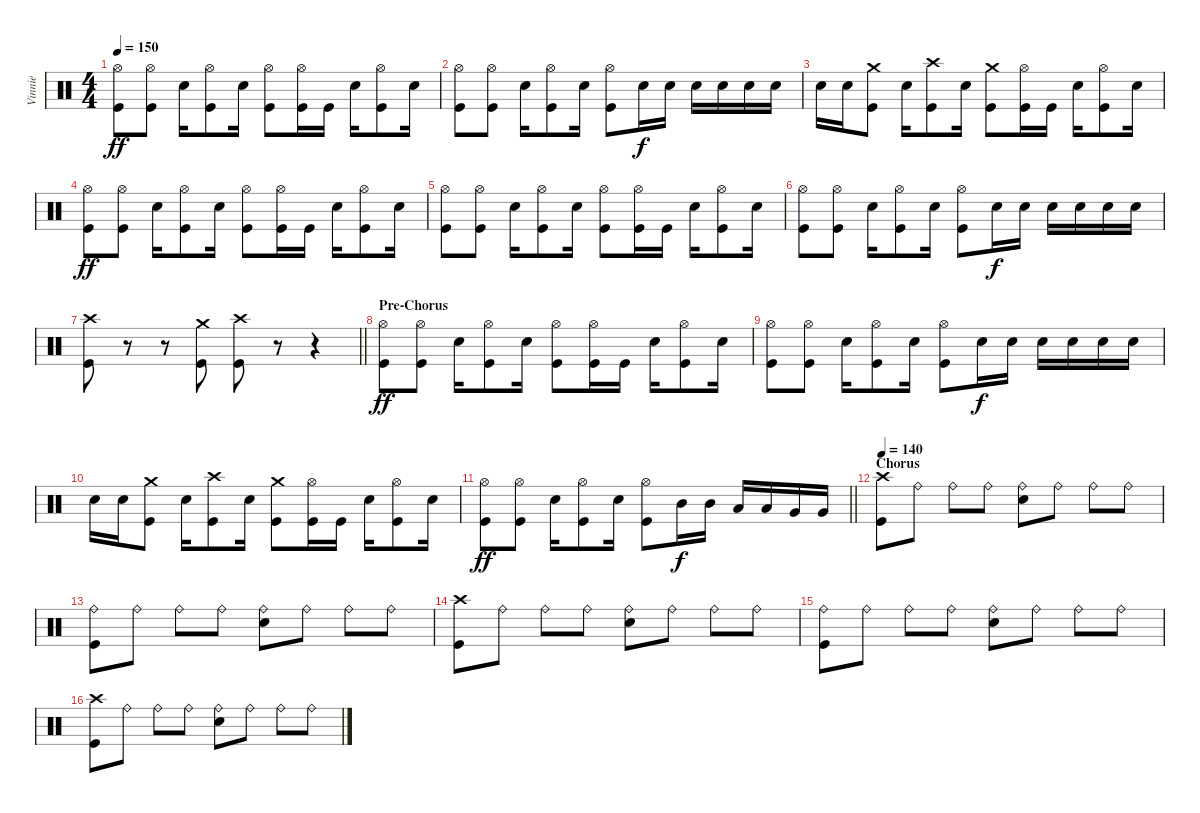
\track ("Vinnie" "Vinnie") {instrument percussion}
\staff {score}
\articulation defaults
\ts (4 4)
\tempo 150
\clef neutral
\ks c
("Hi-Hat (open)" "Kick (hit)").8{dy ff} ("Hi-Hat (open)" "Kick (hit)").8 "Electric Snare (hit)".16 ("Hi-Hat (open)" "Kick (hit)").8 "Electric Snare (hit)".16 ("Hi-Hat (open)" "Kick (hit)").8 ("Hi-Hat (open)" "Kick (hit)").16 "Kick (hit)".16 "Electric Snare (hit)".16 ("Hi-Hat (open)" "Kick (hit)").8 "Electric Snare (hit)".16 |
("Hi-Hat (open)" "Kick (hit)").8 ("Hi-Hat (open)" "Kick (hit)").8 "Electric Snare (hit)".16 ("Hi-Hat (open)" "Kick (hit)").8 "Electric Snare (hit)".16 ("Hi-Hat (open)" "Kick (hit)").8 "Electric Snare (hit)".16{dy f} "Electric Snare (hit)".16 "Electric Snare (hit)".16 "Electric Snare (hit)".16 "Electric Snare (hit)".16 "Electric Snare (hit)".16 |
"Electric Snare (hit)".16 "Electric Snare (hit)".16 ("Crash medium (hit)" "Kick (hit)").8 "Electric Snare (hit)".16 ("Crash high (hit)" "Kick (hit)").8 "Electric Snare (hit)".16 ("Crash medium (hit)" "Kick (hit)").8 ("Hi-Hat (open)" "Kick (hit)").16 "Kick (hit)".16 "Electric Snare (hit)".16 ("Hi-Hat (open)" "Kick (hit)").8 "Electric Snare (hit)".16 |
("Hi-Hat (open)" "Kick (hit)").8{dy ff} ("Hi-Hat (open)" "Kick (hit)").8 "Electric Snare (hit)".16 ("Hi-Hat (open)" "Kick (hit)").8 "Electric Snare (hit)".16 ("Hi-Hat (open)" "Kick (hit)").8 ("Hi-Hat (open)" "Kick (hit)").16 "Kick (hit)".16 "Electric Snare (hit)".16 ("Hi-Hat (open)" "Kick (hit)").8 "Electric Snare (hit)".16 |
("Hi-Hat (open)" "Kick (hit)").8 ("Hi-Hat (open)" "Kick (hit)").8 "Electric Snare (hit)".16 ("Hi-Hat (open)" "Kick (hit)").8 "Electric Snare (hit)".16 ("Hi-Hat (open)" "Kick (hit)").8 ("Hi-Hat (open)" "Kick (hit)").16 "Kick (hit)".16 "Electric Snare (hit)".16 ("Hi-Hat (open)" "Kick (hit)").8 "Electric Snare (hit)".16 |
("Hi-Hat (open)" "Kick (hit)").8 ("Hi-Hat (open)" "Kick (hit)").8 "Electric Snare (hit)".16 ("Hi-Hat (open)" "Kick (hit)").8 "Electric Snare (hit)".16 ("Hi-Hat (open)" "Kick (hit)").8 "Electric Snare (hit)".16{dy f} "Electric Snare (hit)".16 "Electric Snare (hit)".16 "Electric Snare (hit)".16 "Electric Snare (hit)".16 "Electric Snare (hit)".16 |
\barLineRight lightlight
("Crash high (hit)" "Kick (hit)").8 r.8{volume 0} r.8 ("Crash medium (hit)" "Kick (hit)").8{volume 16} ("Crash high (hit)" "Kick (hit)").8 r.8{volume 0} r.4 |
\section ("" "Pre-Chorus")
("Hi-Hat (open)" "Kick (hit)").8{dy ff volume 16} ("Hi-Hat (open)" "Kick (hit)").8 "Electric Snare (hit)".16 ("Hi-Hat (open)" "Kick (hit)").8 "Electric Snare (hit)".16 ("Hi-Hat (open)" "Kick (hit)").8 ("Hi-Hat (open)" "Kick (hit)").16 "Kick (hit)".16 "Electric Snare (hit)".16 ("Hi-Hat (open)" "Kick (hit)").8 "Electric Snare (hit)".16 |
("Hi-Hat (open)" "Kick (hit)").8 ("Hi-Hat (open)" "Kick (hit)").8 "Electric Snare (hit)".16 ("Hi-Hat (open)" "Kick (hit)").8 "Electric Snare (hit)".16 ("Hi-Hat (open)" "Kick (hit)").8 "Electric Snare (hit)".16{dy f} "Electric Snare (hit)".16 "Electric Snare (hit)".16 "Electric Snare (hit)".16 "Electric Snare (hit)".16 "Electric Snare (hit)".16 |
"Electric Snare (hit)".16 "Electric Snare (hit)".16 ("Crash medium (hit)" "Kick (hit)").8 "Electric Snare (hit)".16 ("Crash high (hit)" "Kick (hit)").8 "Electric Snare (hit)".16 ("Crash medium (hit)" "Kick (hit)").8 ("Hi-Hat (open)" "Kick (hit)").16 "Kick (hit)".16 "Electric Snare (hit)".16 ("Hi-Hat (open)" "Kick (hit)").8 "Electric Snare (hit)".16 |
\barLineRight lightlight
("Hi-Hat (open)" "Kick (hit)").8{dy ff} ("Hi-Hat (open)" "Kick (hit)").8 "Electric Snare (hit)".16 ("Hi-Hat (open)" "Kick (hit)").8 "Electric Snare (hit)".16 ("Hi-Hat (open)" "Kick (hit)").8 "Mid Tom (hit)".16{dy f} "Mid Tom (hit)".16 "Low Tom (hit)".16 "Low Tom (hit)".16 "Very Low Tom (hit)".16 "Very Low Tom (hit)".16 |
\section ("" "Chorus")
\tempo 140
("Crash high (hit)" "Kick (hit)").8 "Ride (bell)".8 "Ride (bell)".8 "Ride (bell)".8 ("Ride (bell)" "Electric Snare (hit)").8 "Ride (bell)".8 "Ride (bell)".8 "Ride (bell)".8 |
("Ride (bell)" "Kick (hit)").8 "Ride (bell)".8 "Ride (bell)".8 "Ride (bell)".8 ("Ride (bell)" "Electric Snare (hit)").8 "Ride (bell)".8 "Ride (bell)".8 "Ride (bell)".8 |
("Crash high (hit)" "Kick (hit)").8 "Ride (bell)".8 "Ride (bell)".8 "Ride (bell)".8 ("Ride (bell)" "Electric Snare (hit)").8 "Ride (bell)".8 "Ride (bell)".8 "Ride (bell)".8 |
("Ride (bell)" "Kick (hit)").8 "Ride (bell)".8 "Ride (bell)".8 "Ride (bell)".8 ("Ride (bell)" "Electric Snare (hit)").8 "Ride (bell)".8 "Ride (bell)".8 "Ride (bell)".8 |
("Crash high (hit)" "Kick (hit)").8 "Ride (bell)".8 "Ride (bell)".8 "Ride (bell)".8 ("Ride (bell)" "Electric Snare (hit)").8 "Ride (bell)".8 "Ride (bell)".8 "Ride (bell)".8
